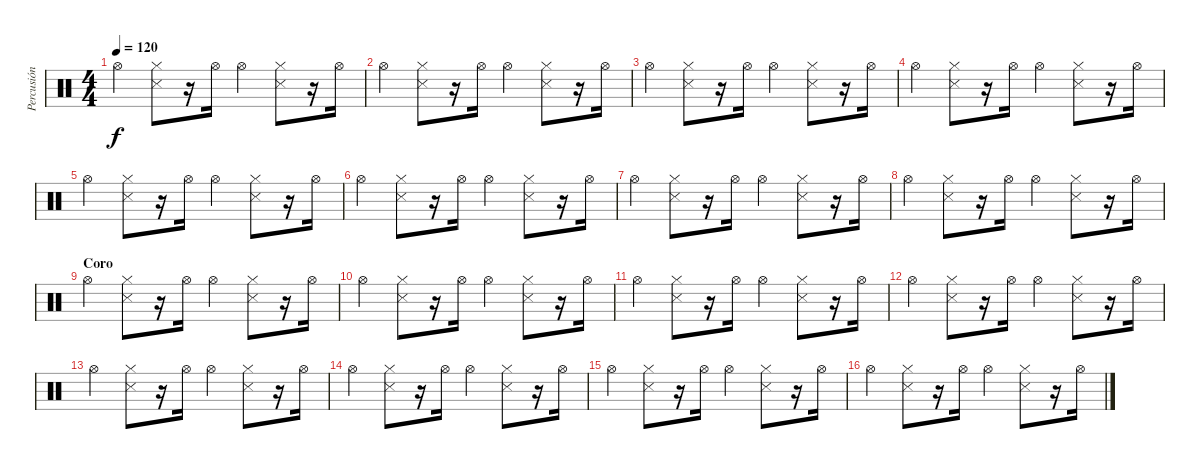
\track ("Percusión" "Percusión") {instrument percussion}
\staff {score}
\articulation defaults
\ts (4 4)
\tempo 120
\clef neutral
\ks c "Hi-Hat (open)".4{dy f}
("Hi-Hat (closed)" "Snare (side stick) 3").8 r.16 "Hi-Hat (open)".16 "Hi-Hat (open)".4 ("Hi-Hat (closed)" "Snare (side stick) 3").8 r.16 "Hi-Hat (open)".16 |
"Hi-Hat (open)".4 ("Hi-Hat (closed)" "Snare (side stick) 3").8 r.16 "Hi-Hat (open)".16 "Hi-Hat (open)".4 ("Hi-Hat (closed)" "Snare (side stick) 3").8 r.16 "Hi-Hat (open)".16 |
"Hi-Hat (open)".4 ("Hi-Hat (closed)" "Snare (side stick) 3").8 r.16 "Hi-Hat (open)".16 "Hi-Hat (open)".4 ("Hi-Hat (closed)" "Snare (side stick) 3").8 r.16 "Hi-Hat (open)".16 |
"Hi-Hat (open)".4 ("Hi-Hat (closed)" "Snare (side stick) 3").8 r.16 "Hi-Hat (open)".16 "Hi-Hat (open)".4 ("Hi-Hat (closed)" "Snare (side stick) 3").8 r.16 "Hi-Hat (open)".16 |
"Hi-Hat (open)".4 ("Hi-Hat (closed)" "Snare (side stick) 3").8 r.16 "Hi-Hat (open)".16 "Hi-Hat (open)".4 ("Hi-Hat (closed)" "Snare (side stick) 3").8 r.16 "Hi-Hat (open)".16 |
"Hi-Hat (open)".4 ("Hi-Hat (closed)" "Snare (side stick) 3").8 r.16 "Hi-Hat (open)".16 "Hi-Hat (open)".4 ("Hi-Hat (closed)" "Snare (side stick) 3").8 r.16 "Hi-Hat (open)".16 |
"Hi-Hat (open)".4 ("Hi-Hat (closed)" "Snare (side stick) 3").8 r.16 "Hi-Hat (open)".16 "Hi-Hat (open)".4 ("Hi-Hat (closed)" "Snare (side stick) 3").8 r.16 "Hi-Hat (open)".16 |
"Hi-Hat (open)".4 ("Hi-Hat (closed)" "Snare (side stick) 3").8 r.16 "Hi-Hat (open)".16 "Hi-Hat (open)".4 ("Hi-Hat (closed)" "Snare (side stick) 3").8 r.16 "Hi-Hat (open)".16 |
\section ("" "Coro")
"Hi-Hat (open)".4 ("Hi-Hat (closed)" "Snare (side stick) 3").8 r.16 "Hi-Hat (open)".16 "Hi-Hat (open)".4 ("Hi-Hat (closed)" "Snare (side stick) 3").8 r.16 "Hi-Hat (open)".16 |
"Hi-Hat (open)".4 ("Hi-Hat (closed)" "Snare (side stick) 3").8 r.16 "Hi-Hat (open)".16 "Hi-Hat (open)".4 ("Hi-Hat (closed)" "Snare (side stick) 3").8 r.16 "Hi-Hat (open)".16 |
"Hi-Hat (open)".4 ("Hi-Hat (closed)" "Snare (side stick) 3").8 r.16 "Hi-Hat (open)".16 "Hi-Hat (open)".4 ("Hi-Hat (closed)" "Snare (side stick) 3").8 r.16 "Hi-Hat (open)".16 |
"Hi-Hat (open)".4 ("Hi-Hat (closed)" "Snare (side stick) 3").8 r.16 "Hi-Hat (open)".16 "Hi-Hat (open)".4 ("Hi-Hat (closed)" "Snare (side stick) 3").8 r.16 "Hi-Hat (open)".16 |
"Hi-Hat (open)".4 ("Hi-Hat (closed)" "Snare (side stick) 3").8 r.16 "Hi-Hat (open)".16 "Hi-Hat (open)".4 ("Hi-Hat (closed)" "Snare (side stick) 3").8 r.16 "Hi-Hat (open)".16 |
"Hi-Hat (open)".4 ("Hi-Hat (closed)" "Snare (side stick) 3").8 r.16 "Hi-Hat (open)".16 "Hi-Hat (open)".4 ("Hi-Hat (closed)" "Snare (side stick) 3").8 r.16 "Hi-Hat (open)".16 |
"Hi-Hat (open)".4 ("Hi-Hat (closed)" "Snare (side stick) 3").8 r.16 "Hi-Hat (open)".16 "Hi-Hat (open)".4 ("Hi-Hat (closed)" "Snare (side stick) 3").8 r.16 "Hi-Hat (open)".16 |
"Hi-Hat (open)".4 ("Hi-Hat (closed)" "Snare (side stick) 3").8 r.16 "Hi-Hat (open)".16 "Hi-Hat (open)".4 ("Hi-Hat (closed)" "Snare (side stick) 3").8 r.16 "Hi-Hat (open)".16
